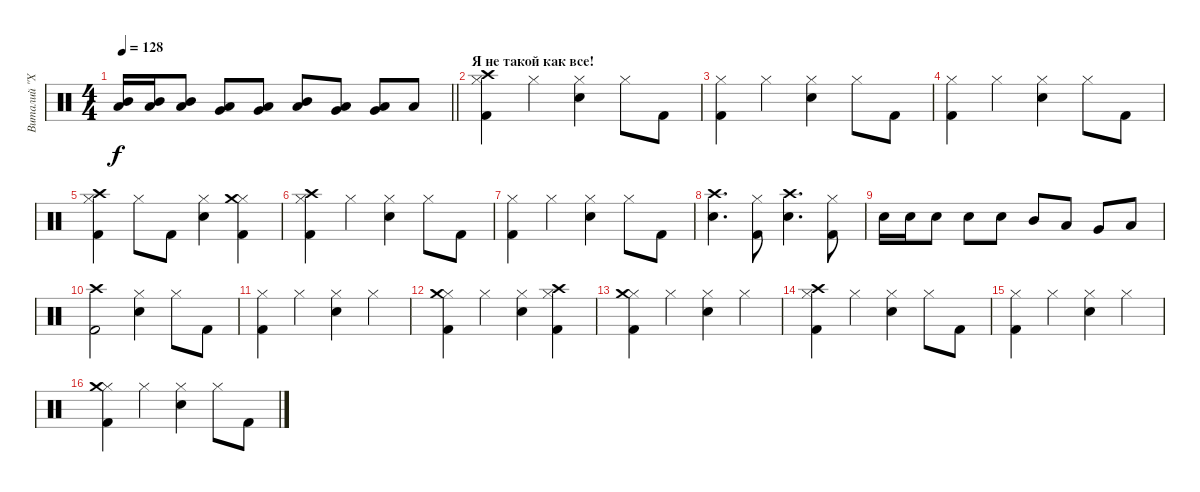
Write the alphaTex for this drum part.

\track ("Виталий \"Хамер\" Лядов" "Виталий \"Х") {instrument percussion}
\staff {score}
\articulation defaults
\ts (4 4)
\tempo 128
\clef neutral
\barLineRight lightlight
\ks c
("Low Tom (hit)" "Mid Tom (hit)").16{dy f} ("Low Tom (hit)" "Mid Tom (hit)").16 ("Low Tom (hit)" "Mid Tom (hit)").8 ("Very Low Tom (hit)" "Low Tom (hit)").8 ("Very Low Tom (hit)" "Low Tom (hit)").8 ("Low Tom (hit)" "Mid Tom (hit)").8 ("Very Low Tom (hit)" "Low Tom (hit)").8 ("Low Floor Tom (hit)" "Very Low Tom (hit)").8 "Low Floor Tom (hit)".8 |
\section ("" "Я не такой как все!")
("Kick (hit) 2" "Hi-Hat (closed)" "Crash high (hit)").4 "Hi-Hat (closed)".4 ("Electric Snare (hit)" "Hi-Hat (closed)").4 "Hi-Hat (closed)".8 "Kick (hit) 2".8 |
("Kick (hit) 2" "Hi-Hat (closed)").4 "Hi-Hat (closed)".4 ("Electric Snare (hit)" "Hi-Hat (closed)").4 "Hi-Hat (closed)".8 "Kick (hit) 2".8 |
("Kick (hit) 2" "Hi-Hat (closed)").4 "Hi-Hat (closed)".4 ("Electric Snare (hit)" "Hi-Hat (closed)").4 "Hi-Hat (closed)".8 "Kick (hit) 2".8 |
("Kick (hit) 2" "Hi-Hat (closed)" "Crash high (hit)").4 "Hi-Hat (closed)".8 "Kick (hit) 2".8 ("Electric Snare (hit)" "Hi-Hat (closed)").4 ("Kick (hit) 2" "Hi-Hat (closed)" "Crash medium (hit)").4 |
("Kick (hit) 2" "Hi-Hat (closed)" "Crash high (hit)").4 "Hi-Hat (closed)".4 ("Electric Snare (hit)" "Hi-Hat (closed)").4 "Hi-Hat (closed)".8 "Kick (hit) 2".8 |
("Kick (hit) 2" "Hi-Hat (closed)").4 "Hi-Hat (closed)".4 ("Electric Snare (hit)" "Hi-Hat (closed)").4 "Hi-Hat (closed)".8 "Kick (hit) 2".8 |
("Electric Snare (hit)" "Crash high (hit)").4{d} ("Kick (hit) 2" "Hi-Hat (closed)").8 ("Electric Snare (hit)" "Crash high (hit)").4{d} ("Kick (hit) 2" "Hi-Hat (closed)").8 |
"Electric Snare (hit)".16 "Electric Snare (hit)".16 "Electric Snare (hit)".8 "Electric Snare (hit)".8 "Electric Snare (hit)".8 "Mid Tom (hit)".8 "Low Tom (hit)".8 "Very Low Tom (hit)".8 "Low Floor Tom (hit)".8 |
("Kick (hit) 2" "Crash high (hit)").2 ("Electric Snare (hit)" "Hi-Hat (closed)").4 "Hi-Hat (closed)".8 "Kick (hit) 2".8 |
("Kick (hit) 2" "Hi-Hat (closed)").4 "Hi-Hat (closed)".4 ("Electric Snare (hit)" "Hi-Hat (closed)").4 "Hi-Hat (closed)".4 |
("Kick (hit) 2" "Hi-Hat (closed)" "Crash medium (hit)").4 "Hi-Hat (closed)".4 ("Electric Snare (hit)" "Hi-Hat (closed)").4 ("Kick (hit) 2" "Hi-Hat (closed)" "Crash high (hit)").4 |
("Kick (hit) 2" "Hi-Hat (closed)" "Crash medium (hit)").4 "Hi-Hat (closed)".4 ("Electric Snare (hit)" "Hi-Hat (closed)").4 "Hi-Hat (closed)".4 |
("Kick (hit) 2" "Hi-Hat (closed)" "Crash high (hit)").4 "Hi-Hat (closed)".4 ("Electric Snare (hit)" "Hi-Hat (closed)").4 "Hi-Hat (closed)".8 "Kick (hit) 2".8 |
("Kick (hit) 2" "Hi-Hat (closed)").4 "Hi-Hat (closed)".4 ("Electric Snare (hit)" "Hi-Hat (closed)").4 "Hi-Hat (closed)".4 |
("Kick (hit) 2" "Hi-Hat (closed)" "Crash medium (hit)").4 "Hi-Hat (closed)".4 ("Electric Snare (hit)" "Hi-Hat (closed)").4 "Hi-Hat (closed)".8 "Kick (hit) 2".8
